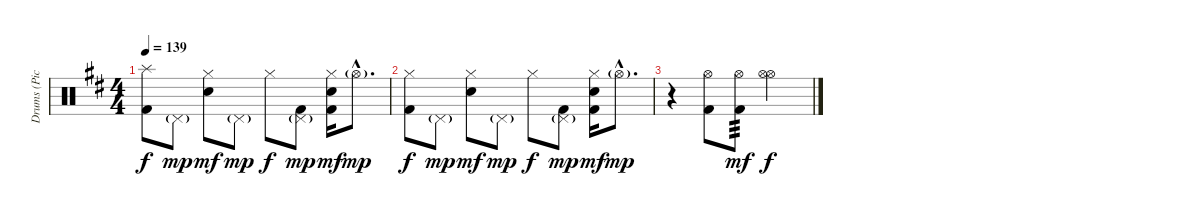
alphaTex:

\track ("Drums (Pick)" "Drums (Pic") {instrument percussion}
\staff {score}
\articulation defaults
\ts (4 4)
\tempo 139
\clef neutral
\ks d
("Splash (hit)" "Kick (hit) 2").8{dy f} "Pedal Hi-Hat (hit)"{g}.8{dy mp} ("Hi-Hat (closed)" "Snare (hit) 2").8{dy mf} "Pedal Hi-Hat (hit)"{g}.8{dy mp} "Hi-Hat (closed)".8{dy f} ("Kick (hit) 2" "Pedal Hi-Hat (hit)"{g}).8{dy mp} ("Snare (hit) 2" "Hi-Hat (closed)" "Kick (hit) 2").16{dy mf} "Hi-Hat (open)"{g hac}.8{d dy mp} |
("Kick (hit) 2" "Hi-Hat (closed)").8{dy f} "Pedal Hi-Hat (hit)"{g}.8{dy mp} ("Snare (hit) 2" "Hi-Hat (closed)").8{dy mf} "Pedal Hi-Hat (hit)"{g}.8{dy mp} "Hi-Hat (closed)".8{dy f} ("Pedal Hi-Hat (hit)"{g} "Kick (hit) 2").8{dy mp} ("Hi-Hat (closed)" "Snare (hit) 2" "Kick (hit) 2").16{dy mf} "Hi-Hat (open)"{g hac}.8{d dy mp} |
r.4 ("Hi-Hat (open)" "Kick (hit) 2").8 ("Hi-Hat (open)" "Kick (hit) 2").8{tp 3 dy mf} ("Hi-Hat (open)" "Hi-Hat (open)").2{dy f}
